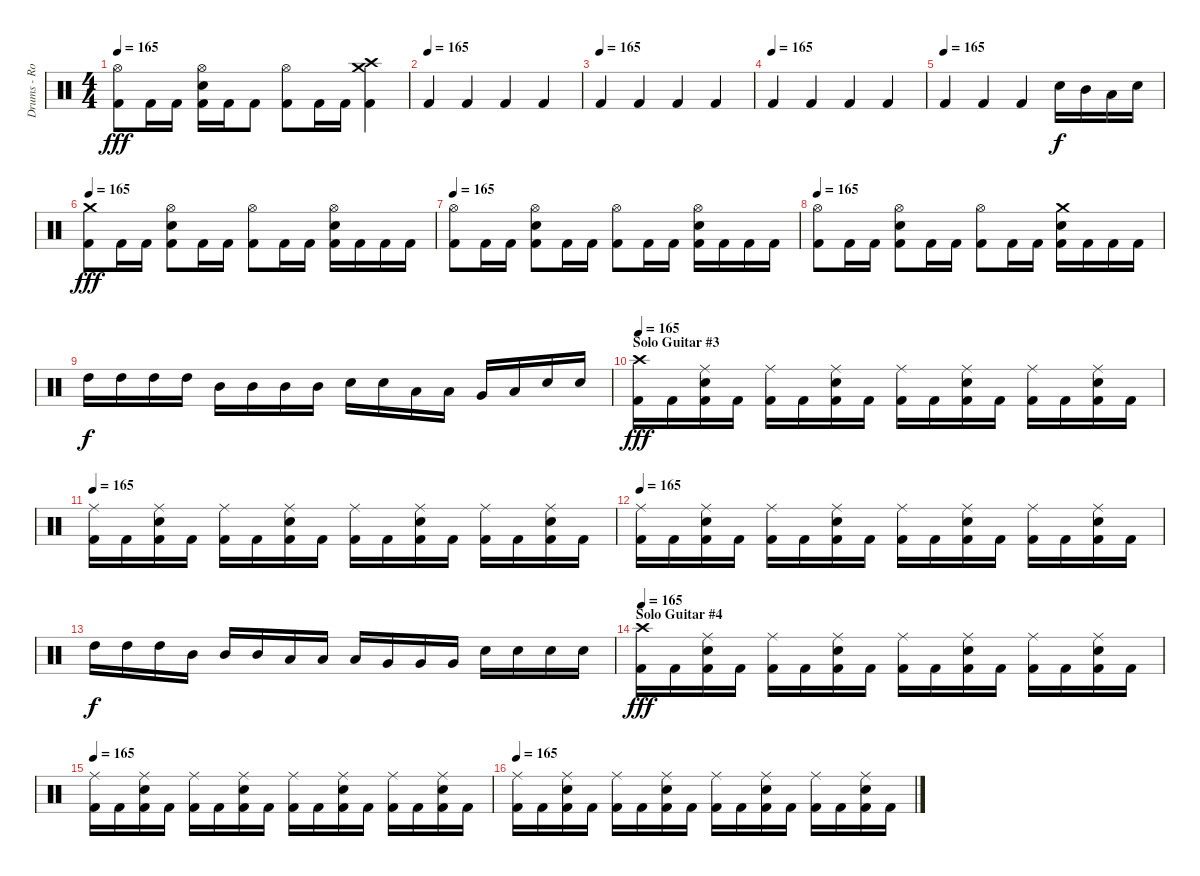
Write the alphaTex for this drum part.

\track ("Drums - Rodrigo" "Drums - Ro") {instrument percussion}
\staff {score}
\articulation defaults
\ts (4 4)
\tempo 165
\clef neutral
\ks c
("Hi-Hat (open)" "Kick (hit) 2").8{dy fff} "Kick (hit) 2".16 "Kick (hit) 2".16 ("Hi-Hat (open)" "Electric Snare (hit)" "Kick (hit) 2").16 "Kick (hit) 2".16 "Kick (hit) 2".8 ("Hi-Hat (open)" "Kick (hit) 2").8 "Kick (hit) 2".16 "Kick (hit) 2".16 ("Crash medium (hit)" "Crash high (hit)" "Kick (hit) 2").4 |
\tempo (165)
"Kick (hit) 2".4 "Kick (hit) 2".4 "Kick (hit) 2".4 "Kick (hit) 2".4 |
\tempo (165)
"Kick (hit) 2".4 "Kick (hit) 2".4 "Kick (hit) 2".4 "Kick (hit) 2".4 |
\tempo (165)
"Kick (hit) 2".4 "Kick (hit) 2".4 "Kick (hit) 2".4 "Kick (hit) 2".4 |
\tempo (165)
"Kick (hit) 2".4 "Kick (hit) 2".4 "Kick (hit) 2".4 "Electric Snare (hit)".16{dy f} "Mid Tom (hit)".16 "Low Tom (hit)".16 "Electric Snare (hit)".16 |
\tempo 165
("Crash medium (hit)" "Kick (hit) 2").8{dy fff} "Kick (hit) 2".16 "Kick (hit) 2".16 ("Hi-Hat (open)" "Electric Snare (hit)" "Kick (hit) 2").8 "Kick (hit) 2".16 "Kick (hit) 2".16 ("Hi-Hat (open)" "Kick (hit) 2").8 "Kick (hit) 2".16 "Kick (hit) 2".16 ("Hi-Hat (open)" "Electric Snare (hit)" "Kick (hit) 2").16 "Kick (hit) 2".16 "Kick (hit) 2".16 "Kick (hit) 2".16 |
\tempo 165
("Hi-Hat (open)" "Kick (hit) 2").8 "Kick (hit) 2".16 "Kick (hit) 2".16 ("Hi-Hat (open)" "Electric Snare (hit)" "Kick (hit) 2").8 "Kick (hit) 2".16 "Kick (hit) 2".16 ("Hi-Hat (open)" "Kick (hit) 2").8 "Kick (hit) 2".16 "Kick (hit) 2".16 ("Hi-Hat (open)" "Electric Snare (hit)" "Kick (hit) 2").16 "Kick (hit) 2".16 "Kick (hit) 2".16 "Kick (hit) 2".16 |
\tempo 165
("Hi-Hat (open)" "Kick (hit) 2").8 "Kick (hit) 2".16 "Kick (hit) 2".16 ("Hi-Hat (open)" "Electric Snare (hit)" "Kick (hit) 2").8 "Kick (hit) 2".16 "Kick (hit) 2".16 ("Hi-Hat (open)" "Kick (hit) 2").8 "Kick (hit) 2".16 "Kick (hit) 2".16 ("Crash medium (hit)" "Electric Snare (hit)" "Kick (hit) 2").16 "Kick (hit) 2".16 "Kick (hit) 2".16 "Kick (hit) 2".16 |
"High Tom (hit)".16{dy f} "High Tom (hit)".16 "High Tom (hit)".16 "High Tom (hit)".16 "Mid Tom (hit)".16 "Mid Tom (hit)".16 "Mid Tom (hit)".16 "Mid Tom (hit)".16 "Electric Snare (hit)".16 "Electric Snare (hit)".16 "Low Tom (hit)".16 "Low Tom (hit)".16 "Very Low Tom (hit)".16 "Low Floor Tom (hit)".16 "Electric Snare (hit)".16 "Electric Snare (hit)".16 |
\section ("" "Solo Guitar #3")
\tempo 165
("Crash high (hit)" "Kick (hit) 2").16{dy fff} "Kick (hit) 2".16 ("Ride (middle)" "Electric Snare (hit)" "Kick (hit) 2").16 "Kick (hit) 2".16 ("Ride (middle)" "Kick (hit) 2").16 "Kick (hit) 2".16 ("Ride (middle)" "Electric Snare (hit)" "Kick (hit) 2").16 "Kick (hit) 2".16 ("Ride (middle)" "Kick (hit) 2").16 "Kick (hit) 2".16 ("Ride (middle)" "Electric Snare (hit)" "Kick (hit) 2").16 "Kick (hit) 2".16 ("Ride (middle)" "Kick (hit) 2").16 "Kick (hit) 2".16 ("Ride (middle)" "Electric Snare (hit)" "Kick (hit) 2").16 "Kick (hit) 2".16 |
\tempo 165
("Ride (middle)" "Kick (hit) 2").16 "Kick (hit) 2".16 ("Ride (middle)" "Electric Snare (hit)" "Kick (hit) 2").16 "Kick (hit) 2".16 ("Ride (middle)" "Kick (hit) 2").16 "Kick (hit) 2".16 ("Ride (middle)" "Electric Snare (hit)" "Kick (hit) 2").16 "Kick (hit) 2".16 ("Ride (middle)" "Kick (hit) 2").16 "Kick (hit) 2".16 ("Ride (middle)" "Electric Snare (hit)" "Kick (hit) 2").16 "Kick (hit) 2".16 ("Ride (middle)" "Kick (hit) 2").16 "Kick (hit) 2".16 ("Ride (middle)" "Electric Snare (hit)" "Kick (hit) 2").16 "Kick (hit) 2".16 |
\tempo 165
("Ride (middle)" "Kick (hit) 2").16 "Kick (hit) 2".16 ("Ride (middle)" "Electric Snare (hit)" "Kick (hit) 2").16 "Kick (hit) 2".16 ("Ride (middle)" "Kick (hit) 2").16 "Kick (hit) 2".16 ("Ride (middle)" "Electric Snare (hit)" "Kick (hit) 2").16 "Kick (hit) 2".16 ("Ride (middle)" "Kick (hit) 2").16 "Kick (hit) 2".16 ("Ride (middle)" "Electric Snare (hit)" "Kick (hit) 2").16 "Kick (hit) 2".16 ("Ride (middle)" "Kick (hit) 2").16 "Kick (hit) 2".16 ("Ride (middle)" "Electric Snare (hit)" "Kick (hit) 2").16 "Kick (hit) 2".16 |
"High Tom (hit)".16{dy f} "High Tom (hit)".16 "High Tom (hit)".16 "Mid Tom (hit)".16 "Mid Tom (hit)".16 "Mid Tom (hit)".16 "Low Tom (hit)".16 "Low Tom (hit)".16 "Low Tom (hit)".16 "Very Low Tom (hit)".16 "Very Low Tom (hit)".16 "Very Low Tom (hit)".16 "Electric Snare (hit)".16 "Electric Snare (hit)".16 "Electric Snare (hit)".16 "Electric Snare (hit)".16 |
\section ("" "Solo Guitar #4")
\tempo 165
("Crash high (hit)" "Kick (hit) 2").16{dy fff} "Kick (hit) 2".16 ("Ride (middle)" "Electric Snare (hit)" "Kick (hit) 2").16 "Kick (hit) 2".16 ("Ride (middle)" "Kick (hit) 2").16 "Kick (hit) 2".16 ("Ride (middle)" "Electric Snare (hit)" "Kick (hit) 2").16 "Kick (hit) 2".16 ("Ride (middle)" "Kick (hit) 2").16 "Kick (hit) 2".16 ("Ride (middle)" "Electric Snare (hit)" "Kick (hit) 2").16 "Kick (hit) 2".16 ("Ride (middle)" "Kick (hit) 2").16 "Kick (hit) 2".16 ("Ride (middle)" "Electric Snare (hit)" "Kick (hit) 2").16 "Kick (hit) 2".16 |
\tempo 165
("Ride (middle)" "Kick (hit) 2").16 "Kick (hit) 2".16 ("Ride (middle)" "Electric Snare (hit)" "Kick (hit) 2").16 "Kick (hit) 2".16 ("Ride (middle)" "Kick (hit) 2").16 "Kick (hit) 2".16 ("Ride (middle)" "Electric Snare (hit)" "Kick (hit) 2").16 "Kick (hit) 2".16 ("Ride (middle)" "Kick (hit) 2").16 "Kick (hit) 2".16 ("Ride (middle)" "Electric Snare (hit)" "Kick (hit) 2").16 "Kick (hit) 2".16 ("Ride (middle)" "Kick (hit) 2").16 "Kick (hit) 2".16 ("Ride (middle)" "Electric Snare (hit)" "Kick (hit) 2").16 "Kick (hit) 2".16 |
\tempo 165
("Ride (middle)" "Kick (hit) 2").16 "Kick (hit) 2".16 ("Ride (middle)" "Electric Snare (hit)" "Kick (hit) 2").16 "Kick (hit) 2".16 ("Ride (middle)" "Kick (hit) 2").16 "Kick (hit) 2".16 ("Ride (middle)" "Electric Snare (hit)" "Kick (hit) 2").16 "Kick (hit) 2".16 ("Ride (middle)" "Kick (hit) 2").16 "Kick (hit) 2".16 ("Ride (middle)" "Electric Snare (hit)" "Kick (hit) 2").16 "Kick (hit) 2".16 ("Ride (middle)" "Kick (hit) 2").16 "Kick (hit) 2".16 ("Ride (middle)" "Electric Snare (hit)" "Kick (hit) 2").16 "Kick (hit) 2".16
